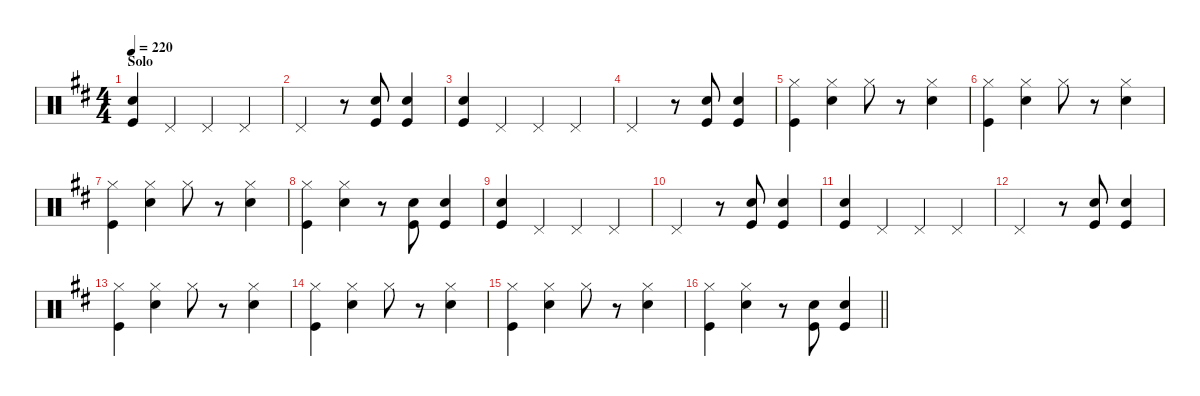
\defaultSystemsLayout 4
\hideDynamics
\bracketExtendMode nobrackets
\singleTrackTrackNamePolicy hidden
\multiTrackTrackNamePolicy hidden
\otherSystemsTrackNameOrientation horizontal
\track ("Charlie Watts" "drm.") {defaultSystemsLayout 8 instrument percussion}
\staff {score}
\articulation defaults
\ts (4 4)
\section ("" "Solo")
\tempo 220
\clef neutral
\ks bminor
("Snare (hit) 2"{acc forcenatural} "Kick (hit)"{acc forcenatural}).4{dy ff beam Up} "Pedal Hi-Hat (hit)"{acc forcenatural}.4{beam Up} "Pedal Hi-Hat (hit)"{acc forcenatural}.4{beam Up} "Pedal Hi-Hat (hit)"{acc forcenatural}.4{beam Up} |
"Pedal Hi-Hat (hit)"{acc forcenatural}.2{beam Up} r.8{beam Up} ("Snare (hit) 2"{acc forcenatural} "Kick (hit)"{acc forcenatural}).8{beam Up} ("Snare (hit) 2"{acc forcenatural} "Kick (hit)"{acc forcenatural}).4{beam Up} |
("Snare (hit) 2"{acc forcenatural} "Kick (hit)"{acc forcenatural}).4{beam Up} "Pedal Hi-Hat (hit)"{acc forcenatural}.4{beam Up} "Pedal Hi-Hat (hit)"{acc forcenatural}.4{beam Up} "Pedal Hi-Hat (hit)"{acc forcenatural}.4{beam Up} |
"Pedal Hi-Hat (hit)"{acc forcenatural}.2{beam Up} r.8{beam Up} ("Snare (hit) 2"{acc forcenatural} "Kick (hit)"{acc forcenatural}).8{beam Up} ("Snare (hit) 2"{acc forcenatural} "Kick (hit)"{acc forcenatural}).4{beam Up} |
("Hi-Hat (closed)"{acc forcenatural} "Kick (hit)"{acc forcenatural}).4{beam Down} ("Hi-Hat (closed)"{acc forcenatural} "Snare (hit) 2"{acc forcenatural}).4{beam Down} "Hi-Hat (closed)"{acc forcenatural}.8{beam Down} r.8{beam Down} ("Hi-Hat (closed)"{acc forcenatural} "Snare (hit) 2"{acc forcenatural}).4{beam Down} |
("Hi-Hat (closed)"{acc forcenatural} "Kick (hit)"{acc forcenatural}).4{beam Down} ("Hi-Hat (closed)"{acc forcenatural} "Snare (hit) 2"{acc forcenatural}).4{beam Down} "Hi-Hat (closed)"{acc forcenatural}.8{beam Down} r.8{beam Down} ("Hi-Hat (closed)"{acc forcenatural} "Snare (hit) 2"{acc forcenatural}).4{beam Down} |
("Hi-Hat (closed)"{acc forcenatural} "Kick (hit)"{acc forcenatural}).4{beam Down} ("Hi-Hat (closed)"{acc forcenatural} "Snare (hit) 2"{acc forcenatural}).4{beam Down} "Hi-Hat (closed)"{acc forcenatural}.8{beam Down} r.8{beam Down} ("Hi-Hat (closed)"{acc forcenatural} "Snare (hit) 2"{acc forcenatural}).4{beam Down} |
("Hi-Hat (closed)"{acc forcenatural} "Kick (hit)"{acc forcenatural}).4{beam Down} ("Hi-Hat (closed)"{acc forcenatural} "Snare (hit) 2"{acc forcenatural}).4{beam Down} r.8{beam Down} ("Snare (hit) 2"{acc forcenatural} "Kick (hit)"{acc forcenatural}).8{beam Up} ("Snare (hit) 2"{acc forcenatural} "Kick (hit)"{acc forcenatural}).4{beam Up} |
("Snare (hit) 2"{acc forcenatural} "Kick (hit)"{acc forcenatural}).4{beam Up} "Pedal Hi-Hat (hit)"{acc forcenatural}.4{beam Up} "Pedal Hi-Hat (hit)"{acc forcenatural}.4{beam Up} "Pedal Hi-Hat (hit)"{acc forcenatural}.4{beam Up} |
"Pedal Hi-Hat (hit)"{acc forcenatural}.2{beam Up} r.8{beam Up} ("Snare (hit) 2"{acc forcenatural} "Kick (hit)"{acc forcenatural}).8{beam Up} ("Snare (hit) 2"{acc forcenatural} "Kick (hit)"{acc forcenatural}).4{beam Up} |
("Snare (hit) 2"{acc forcenatural} "Kick (hit)"{acc forcenatural}).4{beam Up} "Pedal Hi-Hat (hit)"{acc forcenatural}.4{beam Up} "Pedal Hi-Hat (hit)"{acc forcenatural}.4{beam Up} "Pedal Hi-Hat (hit)"{acc forcenatural}.4{beam Up} |
"Pedal Hi-Hat (hit)"{acc forcenatural}.2{beam Up} r.8{beam Up} ("Snare (hit) 2"{acc forcenatural} "Kick (hit)"{acc forcenatural}).8{beam Up} ("Snare (hit) 2"{acc forcenatural} "Kick (hit)"{acc forcenatural}).4{beam Up} |
("Hi-Hat (closed)"{acc forcenatural} "Kick (hit)"{acc forcenatural}).4{beam Down} ("Hi-Hat (closed)"{acc forcenatural} "Snare (hit) 2"{acc forcenatural}).4{beam Down} "Hi-Hat (closed)"{acc forcenatural}.8{beam Down} r.8{beam Down} ("Hi-Hat (closed)"{acc forcenatural} "Snare (hit) 2"{acc forcenatural}).4{beam Down} |
("Hi-Hat (closed)"{acc forcenatural} "Kick (hit)"{acc forcenatural}).4{beam Down} ("Hi-Hat (closed)"{acc forcenatural} "Snare (hit) 2"{acc forcenatural}).4{beam Down} "Hi-Hat (closed)"{acc forcenatural}.8{beam Down} r.8{beam Down} ("Hi-Hat (closed)"{acc forcenatural} "Snare (hit) 2"{acc forcenatural}).4{beam Down} |
("Hi-Hat (closed)"{acc forcenatural} "Kick (hit)"{acc forcenatural}).4{beam Down} ("Hi-Hat (closed)"{acc forcenatural} "Snare (hit) 2"{acc forcenatural}).4{beam Down} "Hi-Hat (closed)"{acc forcenatural}.8{beam Down} r.8{beam Down} ("Hi-Hat (closed)"{acc forcenatural} "Snare (hit) 2"{acc forcenatural}).4{beam Down} |
\barLineRight lightlight
("Hi-Hat (closed)"{acc forcenatural} "Kick (hit)"{acc forcenatural}).4{beam Down} ("Hi-Hat (closed)"{acc forcenatural} "Snare (hit) 2"{acc forcenatural}).4{beam Down} r.8{beam Down} ("Snare (hit) 2"{acc forcenatural} "Kick (hit)"{acc forcenatural}).8{beam Up} ("Snare (hit) 2"{acc forcenatural} "Kick (hit)"{acc forcenatural}).4{beam Up}
